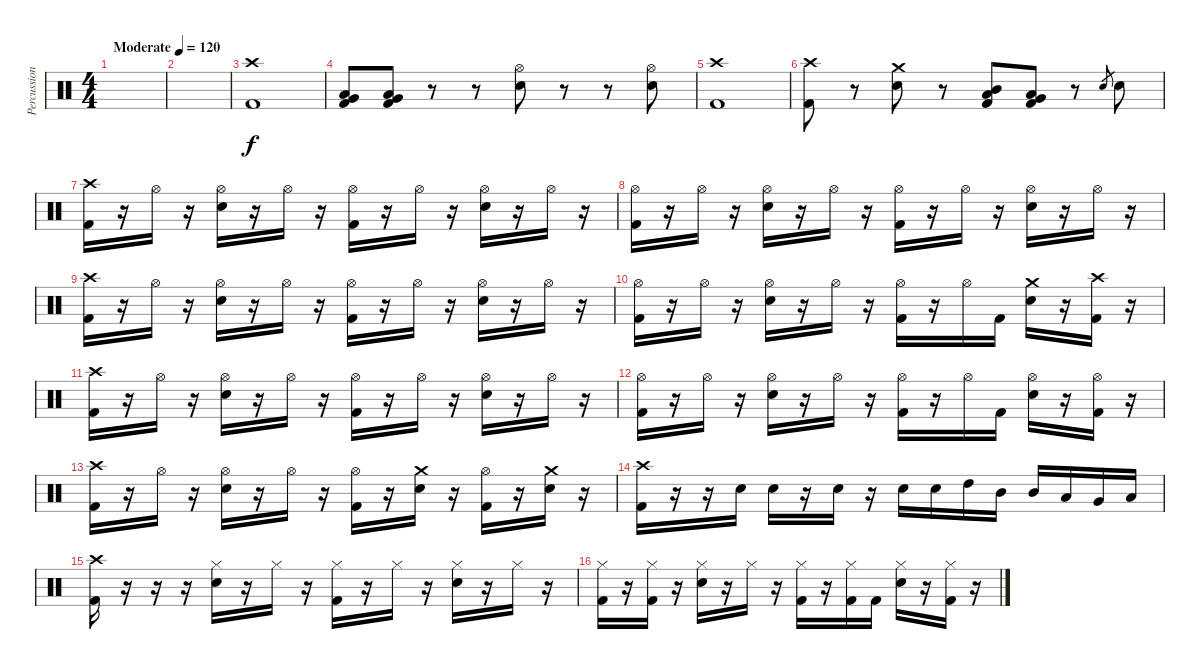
\track ("Percussion" "Percussion") {instrument percussion}
\staff {score}
\articulation defaults
\ts (4 4)
\tempo (120 "Moderate")
\clef neutral
\ks c
|
|
("Crash high (hit)" "Kick (hit) 2").1 |
("Low Tom (hit)" "Very Low Tom (hit)" "Kick (hit) 2").8 ("Very Low Tom (hit)" "Low Floor Tom (hit)" "Kick (hit) 2").8 r.8 r.8 ("Hi-Hat (open)" "Snare (hit) 2").8 r.8 r.8 ("Hi-Hat (open)" "Snare (hit) 2").8 |
("Crash high (hit)" "Kick (hit) 2").1 |
("Crash high (hit)" "Kick (hit) 2").8 r.8 ("Crash medium (hit)" "Snare (hit) 2").8 r.8 ("Mid Tom (hit)" "Low Tom (hit)" "Kick (hit) 2").8 ("Low Tom (hit)" "Very Low Tom (hit)" "Kick (hit) 2").8 r.8 "Snare (hit) 2".8{gr} "Snare (hit) 2".8 |
("Crash high (hit)" "Kick (hit) 2").16 r.16 "Hi-Hat (open)".16 r.16 ("Hi-Hat (open)" "Snare (hit) 2").16 r.16 "Hi-Hat (open)".16 r.16 ("Hi-Hat (open)" "Kick (hit) 2").16 r.16 "Hi-Hat (open)".16 r.16 ("Hi-Hat (open)" "Snare (hit) 2").16 r.16 "Hi-Hat (open)".16 r.16 |
("Hi-Hat (open)" "Kick (hit) 2").16 r.16 "Hi-Hat (open)".16 r.16 ("Hi-Hat (open)" "Snare (hit) 2").16 r.16 "Hi-Hat (open)".16 r.16 ("Hi-Hat (open)" "Kick (hit) 2").16 r.16 "Hi-Hat (open)".16 r.16 ("Hi-Hat (open)" "Snare (hit) 2").16 r.16 "Hi-Hat (open)".16 r.16 |
("Crash high (hit)" "Kick (hit) 2").16 r.16 "Hi-Hat (open)".16 r.16 ("Hi-Hat (open)" "Snare (hit) 2").16 r.16 "Hi-Hat (open)".16 r.16 ("Hi-Hat (open)" "Kick (hit) 2").16 r.16 "Hi-Hat (open)".16 r.16 ("Hi-Hat (open)" "Snare (hit) 2").16 r.16 "Hi-Hat (open)".16 r.16 |
("Hi-Hat (open)" "Kick (hit) 2").16 r.16 "Hi-Hat (open)".16 r.16 ("Hi-Hat (open)" "Snare (hit) 2").16 r.16 "Hi-Hat (open)".16 r.16 ("Hi-Hat (open)" "Kick (hit) 2").16 r.16 "Hi-Hat (open)".16 "Kick (hit) 2".16 ("Crash medium (hit)" "Snare (hit) 2").16 r.16 ("Crash high (hit)" "Kick (hit) 2").16 r.16 |
("Crash high (hit)" "Kick (hit) 2").16 r.16 "Hi-Hat (open)".16 r.16 ("Hi-Hat (open)" "Snare (hit) 2").16 r.16 "Hi-Hat (open)".16 r.16 ("Hi-Hat (open)" "Kick (hit) 2").16 r.16 "Hi-Hat (open)".16 r.16 ("Hi-Hat (open)" "Snare (hit) 2").16 r.16 "Hi-Hat (open)".16 r.16 |
("Hi-Hat (open)" "Kick (hit) 2").16 r.16 "Hi-Hat (open)".16 r.16 ("Hi-Hat (open)" "Snare (hit) 2").16 r.16 "Hi-Hat (open)".16 r.16 ("Hi-Hat (open)" "Kick (hit) 2").16 r.16 "Hi-Hat (open)".16 "Kick (hit) 2".16 ("Hi-Hat (open)" "Snare (hit) 2").16 r.16 ("Hi-Hat (open)" "Kick (hit) 2").16 r.16 |
("Crash high (hit)" "Kick (hit) 2").16 r.16 "Hi-Hat (open)".16 r.16 ("Hi-Hat (open)" "Snare (hit) 2").16 r.16 "Hi-Hat (open)".16 r.16 ("Hi-Hat (open)" "Kick (hit) 2").16 r.16 ("Crash medium (hit)" "Snare (hit) 2").16 r.16 ("Hi-Hat (open)" "Kick (hit) 2").16 r.16 ("Crash medium (hit)" "Snare (hit) 2").16 r.16 |
("Crash high (hit)" "Kick (hit) 2").16 r.16 r.16 "Snare (hit) 2".16 "Snare (hit) 2".16 r.16 "Snare (hit) 2".16 r.16 "Snare (hit) 2".16 "Snare (hit) 2".16 "High Tom (hit)".16 "Mid Tom (hit)".16 "Mid Tom (hit)".16 "Low Tom (hit)".16 "Very Low Tom (hit)".16 "Low Floor Tom (hit)".16 |
("Crash high (hit)" "Kick (hit) 2").16 r.16 r.16 r.16 ("Hi-Hat (closed)" "Snare (hit) 2").16 r.16 "Hi-Hat (closed)".16 r.16 ("Hi-Hat (closed)" "Kick (hit) 2").16 r.16 "Hi-Hat (closed)".16 r.16 ("Hi-Hat (closed)" "Snare (hit) 2").16 r.16 "Hi-Hat (closed)".16 r.16 |
("Hi-Hat (closed)" "Kick (hit) 2").16 r.16 ("Hi-Hat (closed)" "Kick (hit) 2").16 r.16 ("Hi-Hat (closed)" "Snare (hit) 2").16 r.16 "Hi-Hat (closed)".16 r.16 ("Hi-Hat (closed)" "Kick (hit) 2").16 r.16 ("Hi-Hat (closed)" "Kick (hit) 2").16 "Kick (hit) 2".16 ("Hi-Hat (closed)" "Snare (hit) 2").16 r.16 ("Hi-Hat (closed)" "Kick (hit) 2").16 r.16
